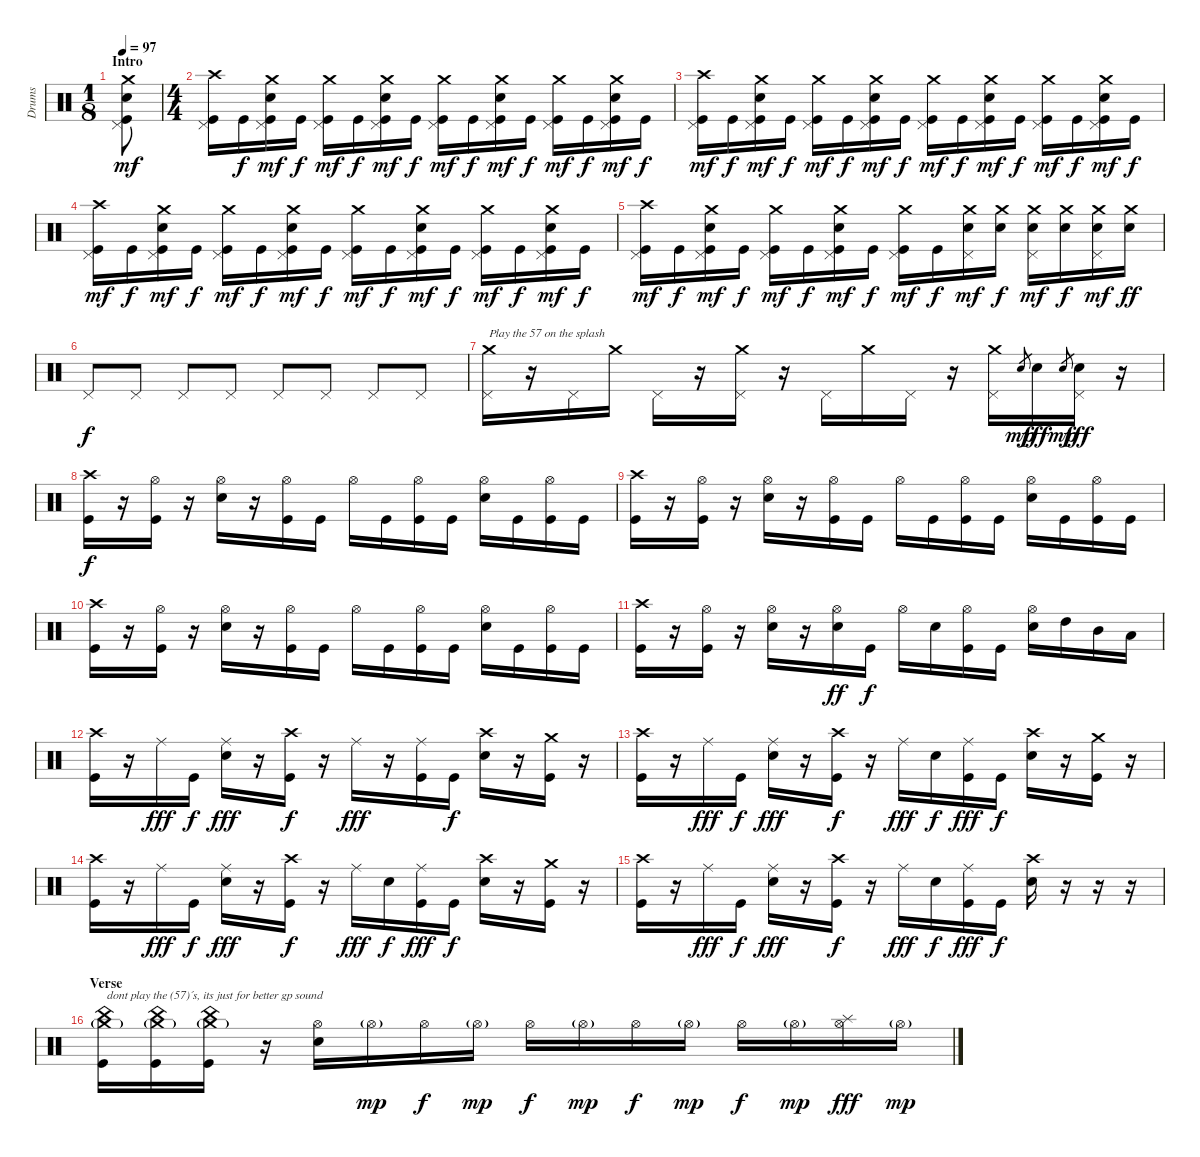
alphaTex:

\track ("Drums" "Drums") {instrument percussion}
\staff {score}
\articulation defaults
\ts (1 8)
\section ("" "Intro")
\tempo 97
\clef neutral
\ks c
("Crash medium (hit)" "Pedal Hi-Hat (hit)" "Electric Snare (hit)" "Kick (hit)").8{dy mf} |
\ts (4 4)
("Crash high (hit)" "Pedal Hi-Hat (hit)" "Kick (hit)").16 "Kick (hit)".16{dy f} ("Crash medium (hit)" "Pedal Hi-Hat (hit)" "Electric Snare (hit)" "Kick (hit)").16{dy mf} "Kick (hit)".16{dy f} ("Crash medium (hit)" "Pedal Hi-Hat (hit)" "Kick (hit)").16{dy mf} "Kick (hit)".16{dy f} ("Crash medium (hit)" "Pedal Hi-Hat (hit)" "Electric Snare (hit)" "Kick (hit)").16{dy mf} "Kick (hit)".16{dy f} ("Crash medium (hit)" "Pedal Hi-Hat (hit)" "Kick (hit)").16{dy mf} "Kick (hit)".16{dy f} ("Crash medium (hit)" "Pedal Hi-Hat (hit)" "Electric Snare (hit)" "Kick (hit)").16{dy mf} "Kick (hit)".16{dy f} ("Crash medium (hit)" "Pedal Hi-Hat (hit)" "Kick (hit)").16{dy mf} "Kick (hit)".16{dy f} ("Crash medium (hit)" "Pedal Hi-Hat (hit)" "Electric Snare (hit)" "Kick (hit)").16{dy mf} "Kick (hit)".16{dy f} |
("Crash high (hit)" "Pedal Hi-Hat (hit)" "Kick (hit)").16{dy mf} "Kick (hit)".16{dy f} ("Crash medium (hit)" "Pedal Hi-Hat (hit)" "Electric Snare (hit)" "Kick (hit)").16{dy mf} "Kick (hit)".16{dy f} ("Crash medium (hit)" "Pedal Hi-Hat (hit)" "Kick (hit)").16{dy mf} "Kick (hit)".16{dy f} ("Crash medium (hit)" "Pedal Hi-Hat (hit)" "Electric Snare (hit)" "Kick (hit)").16{dy mf} "Kick (hit)".16{dy f} ("Crash medium (hit)" "Pedal Hi-Hat (hit)" "Kick (hit)").16{dy mf} "Kick (hit)".16{dy f} ("Crash medium (hit)" "Pedal Hi-Hat (hit)" "Electric Snare (hit)" "Kick (hit)").16{dy mf} "Kick (hit)".16{dy f} ("Crash medium (hit)" "Pedal Hi-Hat (hit)" "Kick (hit)").16{dy mf} "Kick (hit)".16{dy f} ("Crash medium (hit)" "Pedal Hi-Hat (hit)" "Electric Snare (hit)" "Kick (hit)").16{dy mf} "Kick (hit)".16{dy f} |
("Crash high (hit)" "Pedal Hi-Hat (hit)" "Kick (hit)").16{dy mf} "Kick (hit)".16{dy f} ("Crash medium (hit)" "Pedal Hi-Hat (hit)" "Electric Snare (hit)" "Kick (hit)").16{dy mf} "Kick (hit)".16{dy f} ("Crash medium (hit)" "Pedal Hi-Hat (hit)" "Kick (hit)").16{dy mf} "Kick (hit)".16{dy f} ("Crash medium (hit)" "Pedal Hi-Hat (hit)" "Electric Snare (hit)" "Kick (hit)").16{dy mf} "Kick (hit)".16{dy f} ("Crash medium (hit)" "Pedal Hi-Hat (hit)" "Kick (hit)").16{dy mf} "Kick (hit)".16{dy f} ("Crash medium (hit)" "Pedal Hi-Hat (hit)" "Electric Snare (hit)" "Kick (hit)").16{dy mf} "Kick (hit)".16{dy f} ("Crash medium (hit)" "Pedal Hi-Hat (hit)" "Kick (hit)").16{dy mf} "Kick (hit)".16{dy f} ("Crash medium (hit)" "Pedal Hi-Hat (hit)" "Electric Snare (hit)" "Kick (hit)").16{dy mf} "Kick (hit)".16{dy f} |
("Crash high (hit)" "Pedal Hi-Hat (hit)" "Kick (hit)").16{dy mf} "Kick (hit)".16{dy f} ("Crash medium (hit)" "Pedal Hi-Hat (hit)" "Electric Snare (hit)" "Kick (hit)").16{dy mf} "Kick (hit)".16{dy f} ("Crash medium (hit)" "Pedal Hi-Hat (hit)" "Kick (hit)").16{dy mf} "Kick (hit)".16{dy f} ("Crash medium (hit)" "Pedal Hi-Hat (hit)" "Electric Snare (hit)" "Kick (hit)").16{dy mf} "Kick (hit)".16{dy f} ("Crash medium (hit)" "Pedal Hi-Hat (hit)" "Kick (hit)").16{dy mf} "Kick (hit)".16{dy f} ("Crash medium (hit)" "Pedal Hi-Hat (hit)" "Electric Snare (hit)").16{dy mf} ("Crash medium (hit)" "Electric Snare (hit)").16{dy f} ("Crash medium (hit)" "Pedal Hi-Hat (hit)" "Electric Snare (hit)").16{dy mf} ("Crash medium (hit)" "Electric Snare (hit)").16{dy f} ("Crash medium (hit)" "Pedal Hi-Hat (hit)" "Electric Snare (hit)").16{dy mf} ("Crash medium (hit)" "Electric Snare (hit)").16{dy ff} |
"Pedal Hi-Hat (hit)".8{dy f} "Pedal Hi-Hat (hit)".8 "Pedal Hi-Hat (hit)".8 "Pedal Hi-Hat (hit)".8 "Pedal Hi-Hat (hit)".8 "Pedal Hi-Hat (hit)".8 "Pedal Hi-Hat (hit)".8 "Pedal Hi-Hat (hit)".8 |
("Crash medium (hit)" "Pedal Hi-Hat (hit)").16{txt "Play the 57 on the splash"} r.16 "Pedal Hi-Hat (hit)".16 "Crash medium (hit)".16 "Pedal Hi-Hat (hit)".16 r.16 ("Crash medium (hit)" "Pedal Hi-Hat (hit)").16 r.16 "Pedal Hi-Hat (hit)".16 "Crash medium (hit)".16 "Pedal Hi-Hat (hit)".16 r.16 ("Crash medium (hit)" "Pedal Hi-Hat (hit)").16 "Electric Snare (hit)".8{gr dy mp} "Electric Snare (hit)".16{dy fff} "Electric Snare (hit)".8{gr dy mp} ("Pedal Hi-Hat (hit)" "Electric Snare (hit)").16{dy fff} r.16 |
("Crash high (hit)" "Kick (hit)").16{dy f} r.16 ("Hi-Hat (open)" "Kick (hit)").16 r.16 ("Hi-Hat (open)" "Electric Snare (hit)").16 r.16 ("Hi-Hat (open)" "Kick (hit)").16 "Kick (hit)".16 "Hi-Hat (open)".16 "Kick (hit)".16 ("Hi-Hat (open)" "Kick (hit)").16 "Kick (hit)".16 ("Hi-Hat (open)" "Electric Snare (hit)").16 "Kick (hit)".16 ("Hi-Hat (open)" "Kick (hit)").16 "Kick (hit)".16 |
("Crash high (hit)" "Kick (hit)").16 r.16 ("Hi-Hat (open)" "Kick (hit)").16 r.16 ("Hi-Hat (open)" "Electric Snare (hit)").16 r.16 ("Hi-Hat (open)" "Kick (hit)").16 "Kick (hit)".16 "Hi-Hat (open)".16 "Kick (hit)".16 ("Hi-Hat (open)" "Kick (hit)").16 "Kick (hit)".16 ("Hi-Hat (open)" "Electric Snare (hit)").16 "Kick (hit)".16 ("Hi-Hat (open)" "Kick (hit)").16 "Kick (hit)".16 |
("Crash high (hit)" "Kick (hit)").16 r.16 ("Hi-Hat (open)" "Kick (hit)").16 r.16 ("Hi-Hat (open)" "Electric Snare (hit)").16 r.16 ("Hi-Hat (open)" "Kick (hit)").16 "Kick (hit)".16 "Hi-Hat (open)".16 "Kick (hit)".16 ("Hi-Hat (open)" "Kick (hit)").16 "Kick (hit)".16 ("Hi-Hat (open)" "Electric Snare (hit)").16 "Kick (hit)".16 ("Hi-Hat (open)" "Kick (hit)").16 "Kick (hit)".16 |
("Crash high (hit)" "Kick (hit)").16 r.16 ("Hi-Hat (open)" "Kick (hit)").16 r.16 ("Hi-Hat (open)" "Electric Snare (hit)").16 r.16 ("Hi-Hat (open)" "Electric Snare (hit)").16{dy ff} "Kick (hit)".16{dy f} "Hi-Hat (open)".16 "Electric Snare (hit)".16 ("Hi-Hat (open)" "Kick (hit)").16 "Kick (hit)".16 ("Hi-Hat (open)" "Electric Snare (hit)").16 "High Tom (hit)".16 "Mid Tom (hit)".16 "Low Tom (hit)".16 |
("Crash high (hit)" "Kick (hit)").16 r.16 "Ride (middle)".16{dy fff} "Kick (hit)".16{dy f} ("Ride (middle)" "Electric Snare (hit)").16{dy fff} r.16 ("Crash high (hit)" "Kick (hit)").16{dy f} r.16 "Ride (middle)".16{dy fff} r.16 ("Ride (middle)" "Kick (hit)").16 "Kick (hit)".16{dy f} ("Crash high (hit)" "Electric Snare (hit)").16 r.16 ("Crash medium (hit)" "Kick (hit)").16 r.16 |
("Crash high (hit)" "Kick (hit)").16 r.16 "Ride (middle)".16{dy fff} "Kick (hit)".16{dy f} ("Ride (middle)" "Electric Snare (hit)").16{dy fff} r.16 ("Crash high (hit)" "Kick (hit)").16{dy f} r.16 "Ride (middle)".16{dy fff} "Electric Snare (hit)".16{dy f} ("Ride (middle)" "Kick (hit)").16{dy fff} "Kick (hit)".16{dy f} ("Crash high (hit)" "Electric Snare (hit)").16 r.16 ("Crash medium (hit)" "Kick (hit)").16 r.16 |
("Crash high (hit)" "Kick (hit)").16 r.16 "Ride (middle)".16{dy fff} "Kick (hit)".16{dy f} ("Ride (middle)" "Electric Snare (hit)").16{dy fff} r.16 ("Crash high (hit)" "Kick (hit)").16{dy f} r.16 "Ride (middle)".16{dy fff} "Electric Snare (hit)".16{dy f} ("Ride (middle)" "Kick (hit)").16{dy fff} "Kick (hit)".16{dy f} ("Crash high (hit)" "Electric Snare (hit)").16 r.16 ("Crash medium (hit)" "Kick (hit)").16 r.16 |
("Crash high (hit)" "Kick (hit)").16 r.16 "Ride (middle)".16{dy fff} "Kick (hit)".16{dy f} ("Ride (middle)" "Electric Snare (hit)").16{dy fff} r.16 ("Crash high (hit)" "Kick (hit)").16{dy f} r.16 "Ride (middle)".16{dy fff} "Electric Snare (hit)".16{dy f} ("Ride (middle)" "Kick (hit)").16{dy fff} "Kick (hit)".16{dy f} ("Crash high (hit)" "Electric Snare (hit)").16 r.16 r.16 r.16 |
\section ("" "Verse")
("China (hit)" "Crash medium (hit)"{g} "Kick (hit)").16{txt "dont play the (57)´s, its just for better gp sound"} ("China (hit)" "Crash medium (hit)"{g} "Kick (hit)").16 ("China (hit)" "Crash medium (hit)"{g} "Kick (hit)").16 r.16 ("Hi-Hat (open)" "Electric Snare (hit)").16 "Hi-Hat (open)"{g}.16{dy mp} "Hi-Hat (open)".16{dy f} "Hi-Hat (open)"{g}.16{dy mp} "Hi-Hat (open)".16{dy f} "Hi-Hat (open)"{g}.16{dy mp} "Hi-Hat (open)".16{dy f} "Hi-Hat (open)"{g}.16{dy mp} "Hi-Hat (open)".16{dy f} "Hi-Hat (open)"{g}.16{dy mp} ("Splash (hit)" "Hi-Hat (open)").16{dy fff} "Hi-Hat (open)"{g}.16{dy mp}
